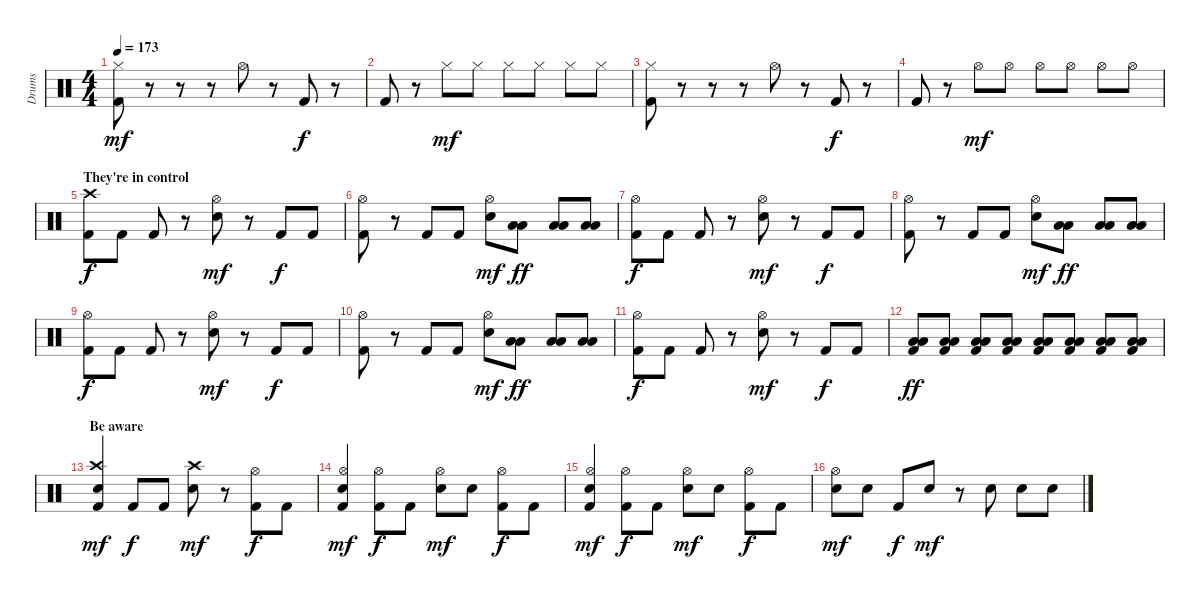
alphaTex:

\track ("Drums" "Drums") {instrument percussion}
\staff {score}
\articulation defaults
\ts (4 4)
\tempo 173
\clef neutral
\ks c
("Hi-Hat (closed)" "Kick (hit) 2").8{dy mf} r.8 r.8 r.8 "Hi-Hat (open)".8 r.8 "Kick (hit) 2".8{dy f} r.8 |
"Kick (hit) 2".8 r.8 "Hi-Hat (closed)".8{dy mf} "Hi-Hat (closed)".8 "Hi-Hat (closed)".8 "Hi-Hat (closed)".8 "Hi-Hat (closed)".8 "Hi-Hat (closed)".8 |
("Hi-Hat (closed)" "Kick (hit) 2").8 r.8 r.8 r.8 "Hi-Hat (open)".8 r.8 "Kick (hit) 2".8{dy f} r.8 |
"Kick (hit) 2".8 r.8 "Hi-Hat (open)".8{dy mf} "Hi-Hat (open)".8 "Hi-Hat (open)".8 "Hi-Hat (open)".8 "Hi-Hat (open)".8 "Hi-Hat (open)".8 |
\section ("" "They're in control")
("Crash high (hit)" "Kick (hit) 2").8{dy f} "Kick (hit) 2".8 "Kick (hit) 2".8 r.8 ("Hi-Hat (open)" "Snare (hit) 2").8{dy mf} r.8 "Kick (hit) 2".8{dy f} "Kick (hit) 2".8 |
("Hi-Hat (open)" "Kick (hit) 2").8 r.8 "Kick (hit) 2".8 "Kick (hit) 2".8 ("Hi-Hat (open)" "Snare (hit) 2").8{dy mf} ("Low Tom (hit)" "Low Floor Tom (hit)").8{dy ff} ("Low Tom (hit)" "Low Floor Tom (hit)").8 ("Low Tom (hit)" "Low Floor Tom (hit)").8 |
("Hi-Hat (open)" "Kick (hit) 2").8{dy f} "Kick (hit) 2".8 "Kick (hit) 2".8 r.8 ("Hi-Hat (open)" "Snare (hit) 2").8{dy mf} r.8 "Kick (hit) 2".8{dy f} "Kick (hit) 2".8 |
("Hi-Hat (open)" "Kick (hit) 2").8 r.8 "Kick (hit) 2".8 "Kick (hit) 2".8 ("Hi-Hat (open)" "Snare (hit) 2").8{dy mf} ("Low Tom (hit)" "Low Floor Tom (hit)").8{dy ff} ("Low Tom (hit)" "Low Floor Tom (hit)").8 ("Low Tom (hit)" "Low Floor Tom (hit)").8 |
("Hi-Hat (open)" "Kick (hit) 2").8{dy f} "Kick (hit) 2".8 "Kick (hit) 2".8 r.8 ("Hi-Hat (open)" "Snare (hit) 2").8{dy mf} r.8 "Kick (hit) 2".8{dy f} "Kick (hit) 2".8 |
("Hi-Hat (open)" "Kick (hit) 2").8 r.8 "Kick (hit) 2".8 "Kick (hit) 2".8 ("Hi-Hat (open)" "Snare (hit) 2").8{dy mf} ("Low Tom (hit)" "Low Floor Tom (hit)").8{dy ff} ("Low Tom (hit)" "Low Floor Tom (hit)").8 ("Low Tom (hit)" "Low Floor Tom (hit)").8 |
("Hi-Hat (open)" "Kick (hit) 2").8{dy f} "Kick (hit) 2".8 "Kick (hit) 2".8 r.8 ("Hi-Hat (open)" "Snare (hit) 2").8{dy mf} r.8 "Kick (hit) 2".8{dy f} "Kick (hit) 2".8 |
("Low Tom (hit)" "Low Floor Tom (hit)" "Kick (hit) 2").8{dy ff} ("Low Tom (hit)" "Low Floor Tom (hit)" "Kick (hit) 2").8 ("Low Tom (hit)" "Low Floor Tom (hit)" "Kick (hit) 2").8 ("Low Tom (hit)" "Low Floor Tom (hit)" "Kick (hit) 2").8 ("Low Tom (hit)" "Low Floor Tom (hit)" "Kick (hit) 2").8 ("Low Tom (hit)" "Low Floor Tom (hit)" "Kick (hit) 2").8 ("Low Tom (hit)" "Low Floor Tom (hit)" "Kick (hit) 2").8 ("Low Tom (hit)" "Low Floor Tom (hit)" "Kick (hit) 2").8 |
\section ("" "Be aware")
("Crash high (hit)" "Snare (hit) 2" "Kick (hit) 2").4{dy mf} "Kick (hit) 2".8{dy f} "Kick (hit) 2".8 ("Crash high (hit)" "Snare (hit) 2").8{dy mf} r.8 ("Hi-Hat (open)" "Kick (hit) 2").8{dy f} "Kick (hit) 2".8 |
("Hi-Hat (open)" "Snare (hit) 2" "Kick (hit) 2").4{dy mf} ("Hi-Hat (open)" "Kick (hit) 2").8{dy f} "Kick (hit) 2".8 ("Hi-Hat (open)" "Snare (hit) 2").8{dy mf} "Snare (hit) 2".8 ("Hi-Hat (open)" "Kick (hit) 2").8{dy f} "Kick (hit) 2".8 |
("Hi-Hat (open)" "Snare (hit) 2" "Kick (hit) 2").4{dy mf} ("Hi-Hat (open)" "Kick (hit) 2").8{dy f} "Kick (hit) 2".8 ("Hi-Hat (open)" "Snare (hit) 2").8{dy mf} "Snare (hit) 2".8 ("Hi-Hat (open)" "Kick (hit) 2").8{dy f} "Kick (hit) 2".8 |
("Hi-Hat (open)" "Snare (hit) 2").8{dy mf} "Snare (hit) 2".8 "Kick (hit) 2".8{dy f} "Snare (hit) 2".8{dy mf} r.8 "Snare (hit) 2".8 "Snare (hit) 2".8 "Snare (hit) 2".8
